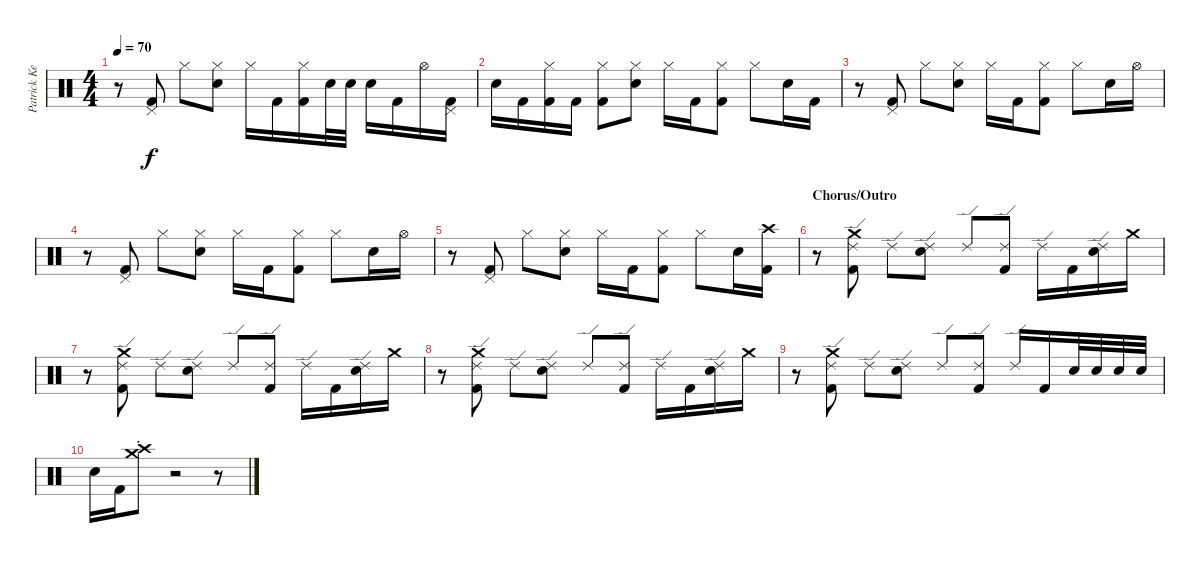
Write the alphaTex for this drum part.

\track ("Patrick Keeler (Drums)" "Patrick Ke") {instrument percussion}
\staff {score}
\articulation defaults
\ts (4 4)
\tempo 70
\clef neutral
\ks c
r.8{dy f} ("Kick (hit) 2" "Pedal Hi-Hat (hit)").8 "Hi-Hat (closed)".8 ("Snare (hit) 2" "Hi-Hat (closed)").8 "Hi-Hat (closed)".16 "Kick (hit) 2".16 ("Kick (hit) 2" "Hi-Hat (closed)").16 "Snare (hit) 2".32 "Snare (hit) 2".32 "Snare (hit) 2".16 "Kick (hit) 2".16 "Hi-Hat (open)".16 ("Kick (hit) 2" "Pedal Hi-Hat (hit)").16 |
"Snare (hit) 2".16 "Kick (hit) 2".16 ("Kick (hit) 2" "Hi-Hat (closed)").16 "Kick (hit) 2".16 ("Kick (hit) 2" "Hi-Hat (closed)").8 ("Snare (hit) 2" "Hi-Hat (closed)").8 "Hi-Hat (closed)".16 "Kick (hit) 2".16 ("Kick (hit) 2" "Hi-Hat (closed)").8 "Hi-Hat (closed)".8 "Snare (hit) 2".16 "Kick (hit) 2".16 |
r.8 ("Kick (hit) 2" "Pedal Hi-Hat (hit)").8 "Hi-Hat (closed)".8 ("Snare (hit) 2" "Hi-Hat (closed)").8 "Hi-Hat (closed)".16 "Kick (hit) 2".16 ("Kick (hit) 2" "Hi-Hat (closed)").8 "Hi-Hat (closed)".8 "Snare (hit) 2".16 "Hi-Hat (open)".16 |
r.8 ("Kick (hit) 2" "Pedal Hi-Hat (hit)").8 "Hi-Hat (closed)".8 ("Snare (hit) 2" "Hi-Hat (closed)").8 "Hi-Hat (closed)".16 "Kick (hit) 2".16 ("Kick (hit) 2" "Hi-Hat (closed)").8 "Hi-Hat (closed)".8 "Snare (hit) 2".16 "Hi-Hat (open)".16 |
r.8 ("Kick (hit) 2" "Pedal Hi-Hat (hit)").8 "Hi-Hat (closed)".8 ("Snare (hit) 2" "Hi-Hat (closed)").8 "Hi-Hat (closed)".16 "Kick (hit) 2".16 ("Kick (hit) 2" "Hi-Hat (closed)").8 "Hi-Hat (closed)".8 "Snare (hit) 2".16 ("Kick (hit) 2" "Crash high (hit)").16 |
\section ("" "Chorus/Outro")
r.8 ("Kick (hit) 2" "Ride (edge) 2" "Crash medium (hit)").8 "Ride (edge) 2".8 ("Snare (hit) 2" "Ride (edge) 2").8 "Ride (edge) 2".8 ("Kick (hit) 2" "Ride (edge) 2").8 "Ride (edge) 2".16 "Kick (hit) 2".16 ("Snare (hit) 2" "Ride (edge) 2").16 "Crash medium (hit)".16 |
r.8 ("Kick (hit) 2" "Ride (edge) 2" "Crash medium (hit)").8 "Ride (edge) 2".8 ("Snare (hit) 2" "Ride (edge) 2").8 "Ride (edge) 2".8 ("Kick (hit) 2" "Ride (edge) 2").8 "Ride (edge) 2".16 "Kick (hit) 2".16 ("Snare (hit) 2" "Ride (edge) 2").16 "Crash medium (hit)".16 |
r.8 ("Kick (hit) 2" "Ride (edge) 2" "Crash medium (hit)").8 "Ride (edge) 2".8 ("Snare (hit) 2" "Ride (edge) 2").8 "Ride (edge) 2".8 ("Kick (hit) 2" "Ride (edge) 2").8 "Ride (edge) 2".16 "Kick (hit) 2".16 ("Snare (hit) 2" "Ride (edge) 2").16 "Crash medium (hit)".16 |
r.8 ("Kick (hit) 2" "Ride (edge) 2" "Crash medium (hit)").8 "Ride (edge) 2".8 ("Snare (hit) 2" "Ride (edge) 2").8 "Ride (edge) 2".8 ("Kick (hit) 2" "Ride (edge) 2").8 "Ride (edge) 2".16 "Kick (hit) 2".16 "Snare (hit) 2".32 "Snare (hit) 2".32 "Snare (hit) 2".32 "Snare (hit) 2".32 |
"Snare (hit) 2".16 "Kick (hit) 2".16 ("Crash high (hit)"{st} "Crash medium (hit)").8 r.2 r.8
